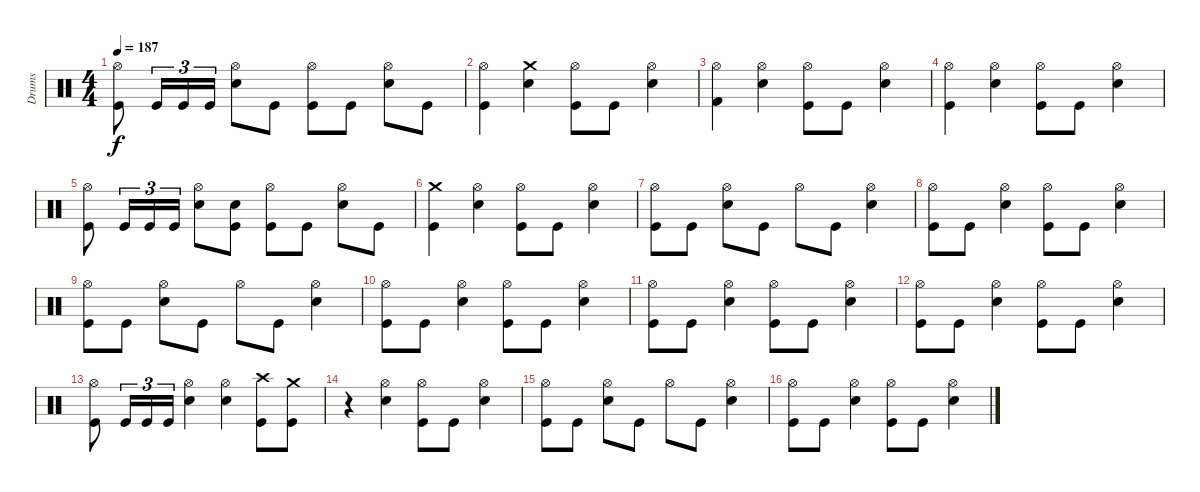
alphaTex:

\track ("Drums" "Drums") {instrument percussion}
\staff {score}
\articulation defaults
\ts (4 4)
\tempo 187
\clef neutral
\ks c
("Hi-Hat (open)" "Kick (hit)").8{dy f} "Kick (hit)".16{tu (3 2)} "Kick (hit)".16{tu (3 2)} "Kick (hit)".16{tu (3 2)} ("Hi-Hat (open)" "Snare (hit) 2").8 "Kick (hit)".8 ("Hi-Hat (open)" "Kick (hit)").8 "Kick (hit)".8 ("Hi-Hat (open)" "Snare (hit) 2").8 "Kick (hit)".8 |
("Hi-Hat (open)" "Kick (hit)").4 ("Crash medium (hit)" "Snare (hit) 2").4 ("Hi-Hat (open)" "Kick (hit)").8 "Kick (hit)".8 ("Hi-Hat (open)" "Snare (hit) 2").4 |
("Hi-Hat (open)" "Kick (hit) 2").4 ("Hi-Hat (open)" "Snare (hit) 2").4 ("Hi-Hat (open)" "Kick (hit)").8 "Kick (hit)".8 ("Hi-Hat (open)" "Snare (hit) 2").4 |
("Hi-Hat (open)" "Kick (hit)").4 ("Hi-Hat (open)" "Snare (hit) 2").4 ("Hi-Hat (open)" "Kick (hit)").8 "Kick (hit)".8 ("Hi-Hat (open)" "Snare (hit) 2").4 |
("Hi-Hat (open)" "Kick (hit)").8 "Kick (hit)".16{tu (3 2)} "Kick (hit)".16{tu (3 2)} "Kick (hit)".16{tu (3 2)} ("Hi-Hat (open)" "Snare (hit) 2").8 ("Snare (hit) 2" "Kick (hit)").8 ("Hi-Hat (open)" "Kick (hit)").8 "Kick (hit)".8 ("Hi-Hat (open)" "Snare (hit) 2").8 "Kick (hit)".8 |
("Crash medium (hit)" "Kick (hit)").4 ("Hi-Hat (open)" "Snare (hit) 2").4 ("Hi-Hat (open)" "Kick (hit)").8 "Kick (hit)".8 ("Hi-Hat (open)" "Snare (hit) 2").4 |
("Hi-Hat (open)" "Kick (hit)").8 "Kick (hit)".8 ("Hi-Hat (open)" "Snare (hit) 2").8 "Kick (hit)".8 "Hi-Hat (open)".8 "Kick (hit)".8 ("Hi-Hat (open)" "Snare (hit) 2").4 |
("Hi-Hat (open)" "Kick (hit)").8 "Kick (hit)".8 ("Hi-Hat (open)" "Snare (hit) 2").4 ("Hi-Hat (open)" "Kick (hit)").8 "Kick (hit)".8 ("Hi-Hat (open)" "Snare (hit) 2").4 |
("Hi-Hat (open)" "Kick (hit)").8 "Kick (hit)".8 ("Hi-Hat (open)" "Snare (hit) 2").8 "Kick (hit)".8 "Hi-Hat (open)".8 "Kick (hit)".8 ("Hi-Hat (open)" "Snare (hit) 2").4 |
("Hi-Hat (open)" "Kick (hit)").8 "Kick (hit)".8 ("Hi-Hat (open)" "Snare (hit) 2").4 ("Hi-Hat (open)" "Kick (hit)").8 "Kick (hit)".8 ("Hi-Hat (open)" "Snare (hit) 2").4 |
("Hi-Hat (open)" "Kick (hit)").8 "Kick (hit)".8 ("Hi-Hat (open)" "Snare (hit) 2").4 ("Hi-Hat (open)" "Kick (hit)").8 "Kick (hit)".8 ("Hi-Hat (open)" "Snare (hit) 2").4 |
("Hi-Hat (open)" "Kick (hit)").8 "Kick (hit)".8 ("Hi-Hat (open)" "Snare (hit) 2").4 ("Hi-Hat (open)" "Kick (hit)").8 "Kick (hit)".8 ("Hi-Hat (open)" "Snare (hit) 2").4 |
("Hi-Hat (open)" "Kick (hit)").8 "Kick (hit)".16{tu (3 2)} "Kick (hit)".16{tu (3 2)} "Kick (hit)".16{tu (3 2)} ("Hi-Hat (open)" "Snare (hit) 2").4 ("Hi-Hat (open)" "Snare (hit) 2").4 ("Crash high (hit)" "Kick (hit)").8 ("Crash medium (hit)" "Kick (hit)").8 |
r.4 ("Hi-Hat (open)" "Snare (hit) 2").4 ("Hi-Hat (open)" "Kick (hit)").8 "Kick (hit)".8 ("Hi-Hat (open)" "Snare (hit) 2").4 |
("Hi-Hat (open)" "Kick (hit)").8 "Kick (hit)".8 ("Hi-Hat (open)" "Snare (hit) 2").8 "Kick (hit)".8 "Hi-Hat (open)".8 "Kick (hit)".8 ("Hi-Hat (open)" "Snare (hit) 2").4 |
("Hi-Hat (open)" "Kick (hit)").8 "Kick (hit)".8 ("Hi-Hat (open)" "Snare (hit) 2").4 ("Hi-Hat (open)" "Kick (hit)").8 "Kick (hit)".8 ("Hi-Hat (open)" "Snare (hit) 2").4
